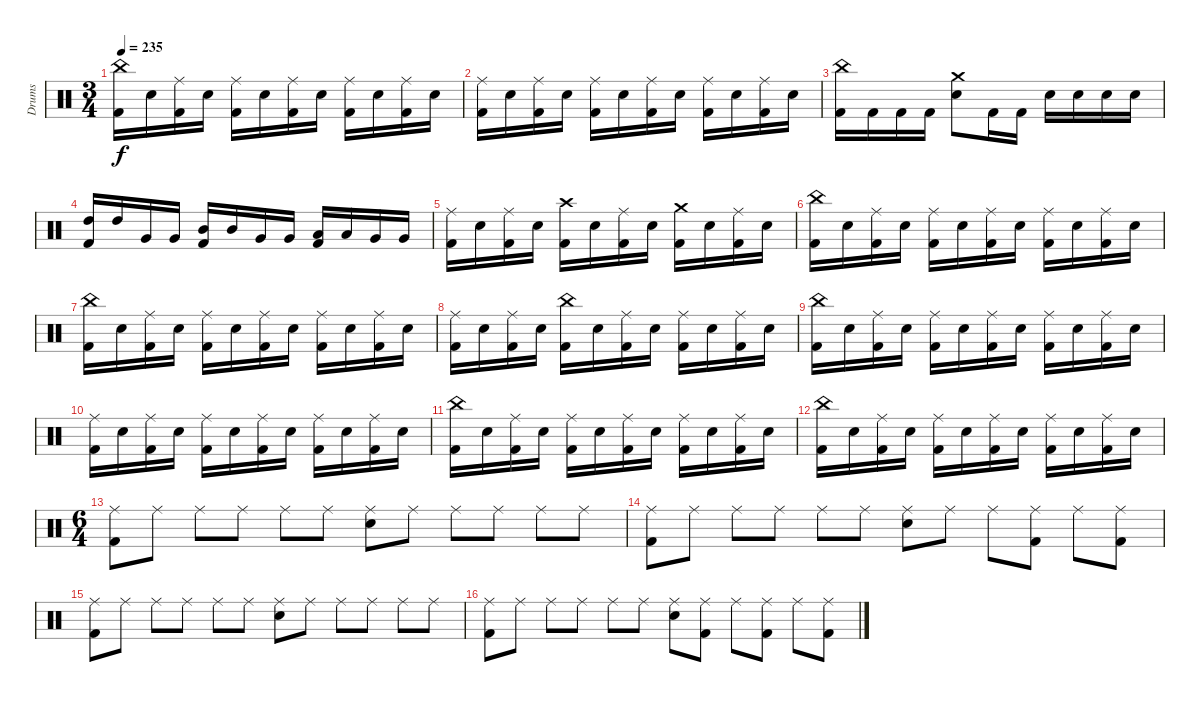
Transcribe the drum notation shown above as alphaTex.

\track ("Drums" "Drums") {instrument percussion}
\staff {score}
\articulation defaults
\ts (3 4)
\tempo 235
\clef neutral
\ks c
("China (hit)" "Kick (hit) 2").16{dy f} "Electric Snare (hit)".16 ("Ride (middle)" "Kick (hit) 2").16 "Electric Snare (hit)".16 ("Ride (middle)" "Kick (hit) 2").16 "Electric Snare (hit)".16 ("Ride (middle)" "Kick (hit) 2").16 "Electric Snare (hit)".16 ("Ride (middle)" "Kick (hit) 2").16 "Electric Snare (hit)".16 ("Ride (middle)" "Kick (hit) 2").16 "Electric Snare (hit)".16 |
("Ride (middle)" "Kick (hit) 2").16 "Electric Snare (hit)".16 ("Ride (middle)" "Kick (hit) 2").16 "Electric Snare (hit)".16 ("Ride (middle)" "Kick (hit) 2").16 "Electric Snare (hit)".16 ("Ride (middle)" "Kick (hit) 2").16 "Electric Snare (hit)".16 ("Ride (middle)" "Kick (hit) 2").16 "Electric Snare (hit)".16 ("Ride (middle)" "Kick (hit) 2").16 "Electric Snare (hit)".16 |
("China (hit)" "Kick (hit) 2").16 "Kick (hit) 2".16 "Kick (hit) 2".16 "Kick (hit) 2".16 ("Crash medium (hit)" "Electric Snare (hit)").8 "Kick (hit) 2".16 "Kick (hit) 2".16 "Electric Snare (hit)".16 "Electric Snare (hit)".16 "Electric Snare (hit)".16 "Electric Snare (hit)".16 |
("High Tom (hit)" "Kick (hit) 2").16 "High Tom (hit)".16 "Very Low Tom (hit)".16 "Very Low Tom (hit)".16 ("Mid Tom (hit)" "Kick (hit) 2").16 "Mid Tom (hit)".16 "Very Low Tom (hit)".16 "Very Low Tom (hit)".16 ("Low Tom (hit)" "Kick (hit) 2").16 "Low Tom (hit)".16 "Very Low Tom (hit)".16 "Very Low Tom (hit)".16 |
("Ride (middle)" "Kick (hit) 2").16 "Electric Snare (hit)".16 ("Ride (middle)" "Kick (hit) 2").16 "Electric Snare (hit)".16 ("Crash high (hit)" "Kick (hit) 2").16 "Electric Snare (hit)".16 ("Ride (middle)" "Kick (hit) 2").16 "Electric Snare (hit)".16 ("Crash medium (hit)" "Kick (hit) 2").16 "Electric Snare (hit)".16 ("Ride (middle)" "Kick (hit) 2").16 "Electric Snare (hit)".16 |
("China (hit)" "Kick (hit) 2").16 "Electric Snare (hit)".16 ("Ride (middle)" "Kick (hit) 2").16 "Electric Snare (hit)".16 ("Ride (middle)" "Kick (hit) 2").16 "Electric Snare (hit)".16 ("Ride (middle)" "Kick (hit) 2").16 "Electric Snare (hit)".16 ("Ride (middle)" "Kick (hit) 2").16 "Electric Snare (hit)".16 ("Ride (middle)" "Kick (hit) 2").16 "Electric Snare (hit)".16 |
("China (hit)" "Kick (hit) 2").16 "Electric Snare (hit)".16 ("Ride (middle)" "Kick (hit) 2").16 "Electric Snare (hit)".16 ("Ride (middle)" "Kick (hit) 2").16 "Electric Snare (hit)".16 ("Ride (middle)" "Kick (hit) 2").16 "Electric Snare (hit)".16 ("Ride (middle)" "Kick (hit) 2").16 "Electric Snare (hit)".16 ("Ride (middle)" "Kick (hit) 2").16 "Electric Snare (hit)".16 |
("Ride (middle)" "Kick (hit) 2").16 "Electric Snare (hit)".16 ("Ride (middle)" "Kick (hit) 2").16 "Electric Snare (hit)".16 ("China (hit)" "Kick (hit) 2").16 "Electric Snare (hit)".16 ("Ride (middle)" "Kick (hit) 2").16 "Electric Snare (hit)".16 ("Ride (middle)" "Kick (hit) 2").16 "Electric Snare (hit)".16 ("Ride (middle)" "Kick (hit) 2").16 "Electric Snare (hit)".16 |
("China (hit)" "Kick (hit) 2").16 "Electric Snare (hit)".16 ("Ride (middle)" "Kick (hit) 2").16 "Electric Snare (hit)".16 ("Ride (middle)" "Kick (hit) 2").16 "Electric Snare (hit)".16 ("Ride (middle)" "Kick (hit) 2").16 "Electric Snare (hit)".16 ("Ride (middle)" "Kick (hit) 2").16 "Electric Snare (hit)".16 ("Ride (middle)" "Kick (hit) 2").16 "Electric Snare (hit)".16 |
("Ride (middle)" "Kick (hit) 2").16 "Electric Snare (hit)".16 ("Ride (middle)" "Kick (hit) 2").16 "Electric Snare (hit)".16 ("Ride (middle)" "Kick (hit) 2").16 "Electric Snare (hit)".16 ("Ride (middle)" "Kick (hit) 2").16 "Electric Snare (hit)".16 ("Ride (middle)" "Kick (hit) 2").16 "Electric Snare (hit)".16 ("Ride (middle)" "Kick (hit) 2").16 "Electric Snare (hit)".16 |
("China (hit)" "Kick (hit) 2").16 "Electric Snare (hit)".16 ("Ride (middle)" "Kick (hit) 2").16 "Electric Snare (hit)".16 ("Ride (middle)" "Kick (hit) 2").16 "Electric Snare (hit)".16 ("Ride (middle)" "Kick (hit) 2").16 "Electric Snare (hit)".16 ("Ride (middle)" "Kick (hit) 2").16 "Electric Snare (hit)".16 ("Ride (middle)" "Kick (hit) 2").16 "Electric Snare (hit)".16 |
("China (hit)" "Kick (hit) 2").16 "Electric Snare (hit)".16 ("Ride (middle)" "Kick (hit) 2").16 "Electric Snare (hit)".16 ("Ride (middle)" "Kick (hit) 2").16 "Electric Snare (hit)".16 ("Ride (middle)" "Kick (hit) 2").16 "Electric Snare (hit)".16 ("Ride (middle)" "Kick (hit) 2").16 "Electric Snare (hit)".16 ("Ride (middle)" "Kick (hit) 2").16 "Electric Snare (hit)".16 |
\ts (6 4)
("Ride (middle)" "Kick (hit) 2").8 "Ride (middle)".8 "Ride (middle)".8 "Ride (middle)".8 "Ride (middle)".8 "Ride (middle)".8 ("Ride (middle)" "Electric Snare (hit)").8 "Ride (middle)".8 "Ride (middle)".8 "Ride (middle)".8 "Ride (middle)".8 "Ride (middle)".8 |
("Ride (middle)" "Kick (hit) 2").8 "Ride (middle)".8 "Ride (middle)".8 "Ride (middle)".8 "Ride (middle)".8 "Ride (middle)".8 ("Ride (middle)" "Electric Snare (hit)").8 "Ride (middle)".8 "Ride (middle)".8 ("Ride (middle)" "Kick (hit) 2").8 "Ride (middle)".8 ("Ride (middle)" "Kick (hit) 2").8 |
("Ride (middle)" "Kick (hit) 2").8 "Ride (middle)".8 "Ride (middle)".8 "Ride (middle)".8 "Ride (middle)".8 "Ride (middle)".8 ("Ride (middle)" "Electric Snare (hit)").8 "Ride (middle)".8 "Ride (middle)".8 "Ride (middle)".8 "Ride (middle)".8 "Ride (middle)".8 |
("Ride (middle)" "Kick (hit) 2").8 "Ride (middle)".8 "Ride (middle)".8 "Ride (middle)".8 "Ride (middle)".8 "Ride (middle)".8 ("Ride (middle)" "Electric Snare (hit)").8 ("Ride (middle)" "Kick (hit) 2").8 "Ride (middle)".8 ("Ride (middle)" "Kick (hit) 2").8 "Ride (middle)".8 ("Ride (middle)" "Kick (hit) 2").8
